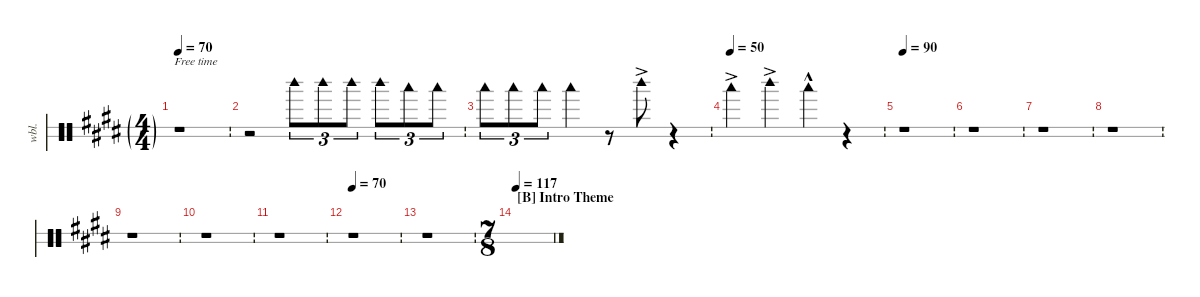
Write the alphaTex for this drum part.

\defaultSystemsLayout 4
\hideDynamics
\bracketExtendMode nobrackets
\track ("Woodblock" "wbl.") {instrument percussion}
\staff {score 2}
\articulation defaults
\ts (4 4)
\ft
\tempo 70
\clef neutral
\ks e
r.1{dy mf} |
\ft
r.2 "Woodblock high (hit)"{acc forcenatural}.8{tu (3 2)} "Woodblock high (hit)"{acc forcenatural}.8{tu (3 2)} "Woodblock high (hit)"{acc forcenatural}.8{tu (3 2)} "Woodblock high (hit)"{acc forcenatural}.8{tu (3 2)} "Woodblock low (hit)"{acc forcenatural}.8{tu (3 2)} "Woodblock low (hit)"{acc forcenatural}.8{tu (3 2)} |
\ft "Woodblock low (hit)"{acc forcenatural}.8{tu (3 2)} "Woodblock low (hit)"{acc forcenatural}.8{tu (3 2)} "Woodblock low (hit)"{acc forcenatural}.8{tu (3 2)} "Woodblock low (hit)"{acc forcenatural}.4
r.8 "Woodblock high (hit)"{ac acc forcenatural}.8 r.4 |
\ft
\tempo (50)
"Woodblock low (hit)"{ac acc forcenatural}.4 "Woodblock high (hit)"{ac acc forcenatural}.4 "Woodblock low (hit)"{hac acc forcenatural}.4 r.4 |
\ft
\tempo 90
r.1 |
\ft
r.1 |
\ft
r.1 |
\ft
r.1 |
\ft
r.1 |
\ft
r.1 |
\ft
r.1 |
\ft
\tempo 70
r.1 |
\ft
r.1 |
\ts (7 8)
\beaming (8 3 2 2)
\section ("B" "Intro Theme")
\tempo 117
